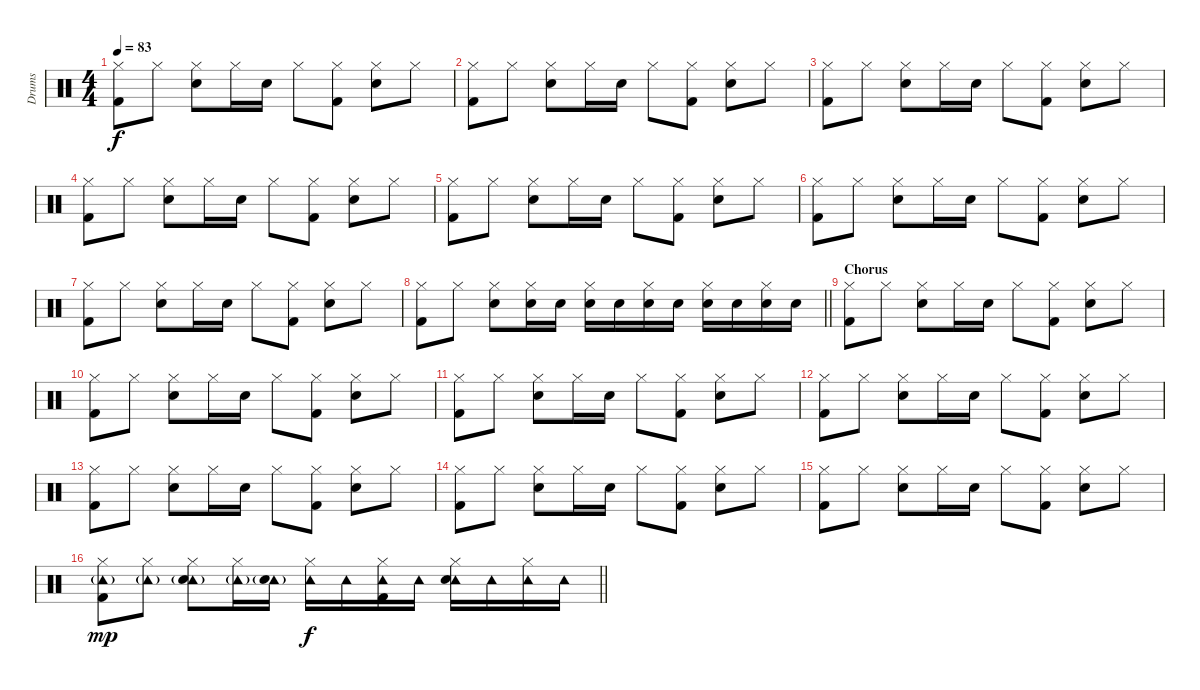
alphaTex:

\track ("Drums" "Drums") {instrument percussion}
\staff {score}
\articulation defaults
\ts (4 4)
\tempo 83
\clef neutral
\ks c
("Hi-Hat (closed)" "Kick (hit) 2").8{dy f} "Hi-Hat (closed)".8 ("Hi-Hat (closed)" "Snare (hit) 2").8 "Hi-Hat (closed)".16 "Snare (hit) 2".16 "Hi-Hat (closed)".8 ("Hi-Hat (closed)" "Kick (hit) 2").8 ("Hi-Hat (closed)" "Snare (hit) 2").8 "Hi-Hat (closed)".8 |
("Hi-Hat (closed)" "Kick (hit) 2").8 "Hi-Hat (closed)".8 ("Hi-Hat (closed)" "Snare (hit) 2").8 "Hi-Hat (closed)".16 "Snare (hit) 2".16 "Hi-Hat (closed)".8 ("Hi-Hat (closed)" "Kick (hit) 2").8 ("Hi-Hat (closed)" "Snare (hit) 2").8 "Hi-Hat (closed)".8 |
("Hi-Hat (closed)" "Kick (hit) 2").8 "Hi-Hat (closed)".8 ("Hi-Hat (closed)" "Snare (hit) 2").8 "Hi-Hat (closed)".16 "Snare (hit) 2".16 "Hi-Hat (closed)".8 ("Hi-Hat (closed)" "Kick (hit) 2").8 ("Hi-Hat (closed)" "Snare (hit) 2").8 "Hi-Hat (closed)".8 |
("Hi-Hat (closed)" "Kick (hit) 2").8 "Hi-Hat (closed)".8 ("Hi-Hat (closed)" "Snare (hit) 2").8 "Hi-Hat (closed)".16 "Snare (hit) 2".16 "Hi-Hat (closed)".8 ("Hi-Hat (closed)" "Kick (hit) 2").8 ("Hi-Hat (closed)" "Snare (hit) 2").8 "Hi-Hat (closed)".8 |
("Hi-Hat (closed)" "Kick (hit) 2").8 "Hi-Hat (closed)".8 ("Hi-Hat (closed)" "Snare (hit) 2").8 "Hi-Hat (closed)".16 "Snare (hit) 2".16 "Hi-Hat (closed)".8 ("Hi-Hat (closed)" "Kick (hit) 2").8 ("Hi-Hat (closed)" "Snare (hit) 2").8 "Hi-Hat (closed)".8 |
("Hi-Hat (closed)" "Kick (hit) 2").8 "Hi-Hat (closed)".8 ("Hi-Hat (closed)" "Snare (hit) 2").8 "Hi-Hat (closed)".16 "Snare (hit) 2".16 "Hi-Hat (closed)".8 ("Hi-Hat (closed)" "Kick (hit) 2").8 ("Hi-Hat (closed)" "Snare (hit) 2").8 "Hi-Hat (closed)".8 |
("Hi-Hat (closed)" "Kick (hit) 2").8 "Hi-Hat (closed)".8 ("Hi-Hat (closed)" "Snare (hit) 2").8 "Hi-Hat (closed)".16 "Snare (hit) 2".16 "Hi-Hat (closed)".8 ("Hi-Hat (closed)" "Kick (hit) 2").8 ("Hi-Hat (closed)" "Snare (hit) 2").8 "Hi-Hat (closed)".8 |
\barLineRight lightlight
("Hi-Hat (closed)" "Kick (hit) 2").8 "Hi-Hat (closed)".8 ("Hi-Hat (closed)" "Snare (hit) 2").8 ("Hi-Hat (closed)" "Snare (hit) 2").16 "Snare (hit) 2".16 ("Hi-Hat (closed)" "Snare (hit) 2").16 "Snare (hit) 2".16 ("Hi-Hat (closed)" "Snare (hit) 2").16 "Snare (hit) 2".16 ("Hi-Hat (closed)" "Snare (hit) 2").16 "Snare (hit) 2".16 ("Hi-Hat (closed)" "Snare (hit) 2").16 "Snare (hit) 2".16 |
\section ("" "Chorus")
("Hi-Hat (closed)" "Kick (hit) 2").8 "Hi-Hat (closed)".8 ("Hi-Hat (closed)" "Snare (hit) 2").8 "Hi-Hat (closed)".16 "Snare (hit) 2".16 "Hi-Hat (closed)".8 ("Hi-Hat (closed)" "Kick (hit) 2").8 ("Hi-Hat (closed)" "Snare (hit) 2").8 "Hi-Hat (closed)".8 |
("Hi-Hat (closed)" "Kick (hit) 2").8 "Hi-Hat (closed)".8 ("Hi-Hat (closed)" "Snare (hit) 2").8 "Hi-Hat (closed)".16 "Snare (hit) 2".16 "Hi-Hat (closed)".8 ("Hi-Hat (closed)" "Kick (hit) 2").8 ("Hi-Hat (closed)" "Snare (hit) 2").8 "Hi-Hat (closed)".8 |
("Hi-Hat (closed)" "Kick (hit) 2").8 "Hi-Hat (closed)".8 ("Hi-Hat (closed)" "Snare (hit) 2").8 "Hi-Hat (closed)".16 "Snare (hit) 2".16 "Hi-Hat (closed)".8 ("Hi-Hat (closed)" "Kick (hit) 2").8 ("Hi-Hat (closed)" "Snare (hit) 2").8 "Hi-Hat (closed)".8 |
("Hi-Hat (closed)" "Kick (hit) 2").8 "Hi-Hat (closed)".8 ("Hi-Hat (closed)" "Snare (hit) 2").8 "Hi-Hat (closed)".16 "Snare (hit) 2".16 "Hi-Hat (closed)".8 ("Hi-Hat (closed)" "Kick (hit) 2").8 ("Hi-Hat (closed)" "Snare (hit) 2").8 "Hi-Hat (closed)".8 |
("Hi-Hat (closed)" "Kick (hit) 2").8 "Hi-Hat (closed)".8 ("Hi-Hat (closed)" "Snare (hit) 2").8 "Hi-Hat (closed)".16 "Snare (hit) 2".16 "Hi-Hat (closed)".8 ("Hi-Hat (closed)" "Kick (hit) 2").8 ("Hi-Hat (closed)" "Snare (hit) 2").8 "Hi-Hat (closed)".8 |
("Hi-Hat (closed)" "Kick (hit) 2").8 "Hi-Hat (closed)".8 ("Hi-Hat (closed)" "Snare (hit) 2").8 "Hi-Hat (closed)".16 "Snare (hit) 2".16 "Hi-Hat (closed)".8 ("Hi-Hat (closed)" "Kick (hit) 2").8 ("Hi-Hat (closed)" "Snare (hit) 2").8 "Hi-Hat (closed)".8 |
("Hi-Hat (closed)" "Kick (hit) 2").8 "Hi-Hat (closed)".8 ("Hi-Hat (closed)" "Snare (hit) 2").8 "Hi-Hat (closed)".16 "Snare (hit) 2".16 "Hi-Hat (closed)".8 ("Hi-Hat (closed)" "Kick (hit) 2").8 ("Hi-Hat (closed)" "Snare (hit) 2").8 "Hi-Hat (closed)".8 |
\barLineRight lightlight
("Tambourine (hit)"{g} "Hi-Hat (closed)" "Kick (hit) 2").8{dy mp} ("Tambourine (hit)"{g} "Hi-Hat (closed)").8 ("Tambourine (hit)"{g} "Hi-Hat (closed)" "Snare (hit) 2").8 ("Tambourine (hit)"{g} "Hi-Hat (closed)").16 ("Tambourine (hit)"{g} "Snare (hit) 2").16 ("Tambourine (hit)" "Hi-Hat (closed)").16{dy f} "Tambourine (hit)".16 ("Tambourine (hit)" "Hi-Hat (closed)" "Kick (hit) 2").16 "Tambourine (hit)".16 ("Tambourine (hit)" "Hi-Hat (closed)" "Snare (hit) 2").16 "Tambourine (hit)".16 ("Tambourine (hit)" "Hi-Hat (closed)").16 "Tambourine (hit)".16
